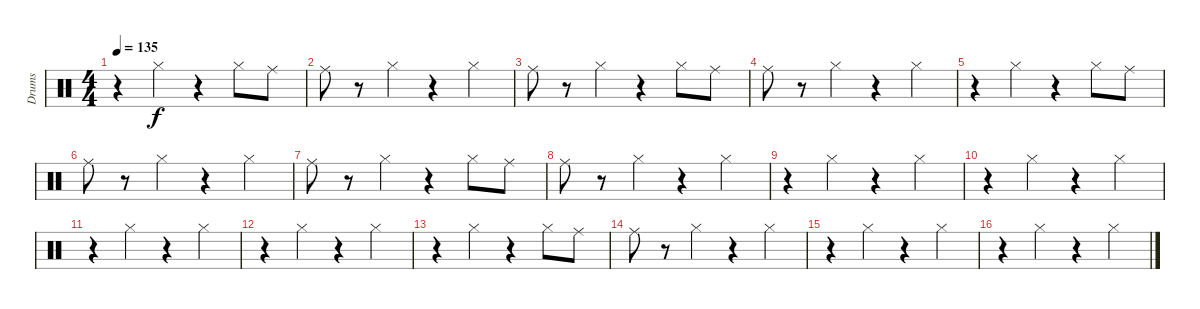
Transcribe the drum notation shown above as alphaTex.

\track ("Drums" "Drums") {instrument percussion}
\staff {score}
\articulation defaults
\ts (4 4)
\tempo 135
\clef neutral
\ks c
r.4{dy f} "Hi-Hat (closed)".4 r.4 "Hi-Hat (closed)".8 "Ride (middle)".8 |
"Ride (middle)".8 r.8 "Hi-Hat (closed)".4 r.4 "Hi-Hat (closed)".4 |
"Ride (middle)".8 r.8 "Hi-Hat (closed)".4 r.4 "Hi-Hat (closed)".8 "Ride (middle)".8 |
"Ride (middle)".8 r.8 "Hi-Hat (closed)".4 r.4 "Hi-Hat (closed)".4 |
r.4 "Hi-Hat (closed)".4 r.4 "Hi-Hat (closed)".8 "Ride (middle)".8 |
"Ride (middle)".8 r.8 "Hi-Hat (closed)".4 r.4 "Hi-Hat (closed)".4 |
"Ride (middle)".8 r.8 "Hi-Hat (closed)".4 r.4 "Hi-Hat (closed)".8 "Ride (middle)".8 |
"Ride (middle)".8 r.8 "Hi-Hat (closed)".4 r.4 "Hi-Hat (closed)".4 |
r.4 "Hi-Hat (closed)".4 r.4 "Hi-Hat (closed)".4 |
r.4 "Hi-Hat (closed)".4 r.4 "Hi-Hat (closed)".4 |
r.4 "Hi-Hat (closed)".4 r.4 "Hi-Hat (closed)".4 |
r.4 "Hi-Hat (closed)".4 r.4 "Hi-Hat (closed)".4 |
r.4 "Hi-Hat (closed)".4 r.4 "Hi-Hat (closed)".8 "Ride (middle)".8 |
"Ride (middle)".8 r.8 "Hi-Hat (closed)".4 r.4 "Hi-Hat (closed)".4 |
r.4 "Hi-Hat (closed)".4 r.4 "Hi-Hat (closed)".4 |
r.4 "Hi-Hat (closed)".4 r.4 "Hi-Hat (closed)".4
